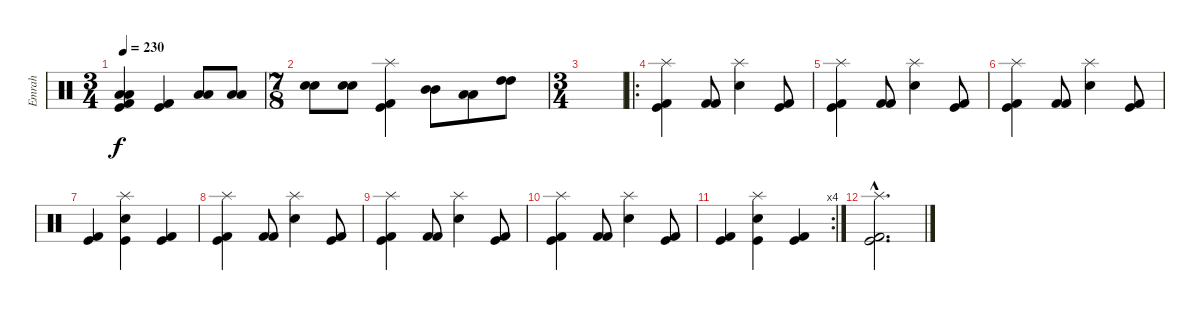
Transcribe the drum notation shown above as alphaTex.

\track ("Emrah" "Emrah") {instrument percussion}
\staff {score}
\articulation defaults
\ts (3 4)
\tempo 230
\clef neutral
\ks c
("Low Tom (hit)" "Low Tom (hit)" "Kick (hit)" "Kick (hit) 2").4{dy f volume 16} ("Kick (hit)" "Kick (hit) 2").4 ("Low Tom (hit)" "Low Tom (hit)").8 ("Low Tom (hit)" "Low Tom (hit)").8 |
\ts (7 8)
("Snare (hit) 2" "Snare (hit) 2").8 ("Snare (hit) 2" "Snare (hit) 2").8 ("Splash (hit)" "Kick (hit)" "Kick (hit) 2").4 ("Mid Tom (hit)" "Mid Tom (hit)").8 ("Low Tom (hit)" "Low Tom (hit)").8 ("High Tom (hit)" "High Tom (hit)").8 |
\ts (3 4)
|
\ro
("Splash (hit)" "Kick (hit)" "Kick (hit) 2").4 ("Kick (hit) 2" "Kick (hit) 2").8 ("Splash (hit)" "Snare (hit) 2").4 ("Kick (hit)" "Kick (hit) 2").8 |
("Splash (hit)" "Kick (hit)" "Kick (hit) 2").4 ("Kick (hit) 2" "Kick (hit) 2").8 ("Splash (hit)" "Snare (hit) 2").4 ("Kick (hit)" "Kick (hit) 2").8 |
("Splash (hit)" "Kick (hit)" "Kick (hit) 2").4 ("Kick (hit) 2" "Kick (hit) 2").8 ("Splash (hit)" "Snare (hit) 2").4 ("Kick (hit)" "Kick (hit) 2").8 |
("Kick (hit)" "Kick (hit) 2").4 ("Splash (hit)" "Snare (hit) 2" "Kick (hit)").4 ("Kick (hit)" "Kick (hit) 2").4 |
("Splash (hit)" "Kick (hit)" "Kick (hit) 2").4 ("Kick (hit) 2" "Kick (hit) 2").8 ("Splash (hit)" "Snare (hit) 2").4 ("Kick (hit)" "Kick (hit) 2").8 |
("Splash (hit)" "Kick (hit)" "Kick (hit) 2").4 ("Kick (hit) 2" "Kick (hit) 2").8 ("Splash (hit)" "Snare (hit) 2").4 ("Kick (hit)" "Kick (hit) 2").8 |
("Splash (hit)" "Kick (hit)" "Kick (hit) 2").4 ("Kick (hit) 2" "Kick (hit) 2").8 ("Splash (hit)" "Snare (hit) 2").4 ("Kick (hit)" "Kick (hit) 2").8 |
\rc 4
("Kick (hit)" "Kick (hit) 2").4 ("Splash (hit)" "Snare (hit) 2" "Kick (hit)").4 ("Kick (hit)" "Kick (hit) 2").4 |
("Splash (hit)"{hac} "Kick (hit)"{hac} "Kick (hit) 2"{hac}).2{d}
